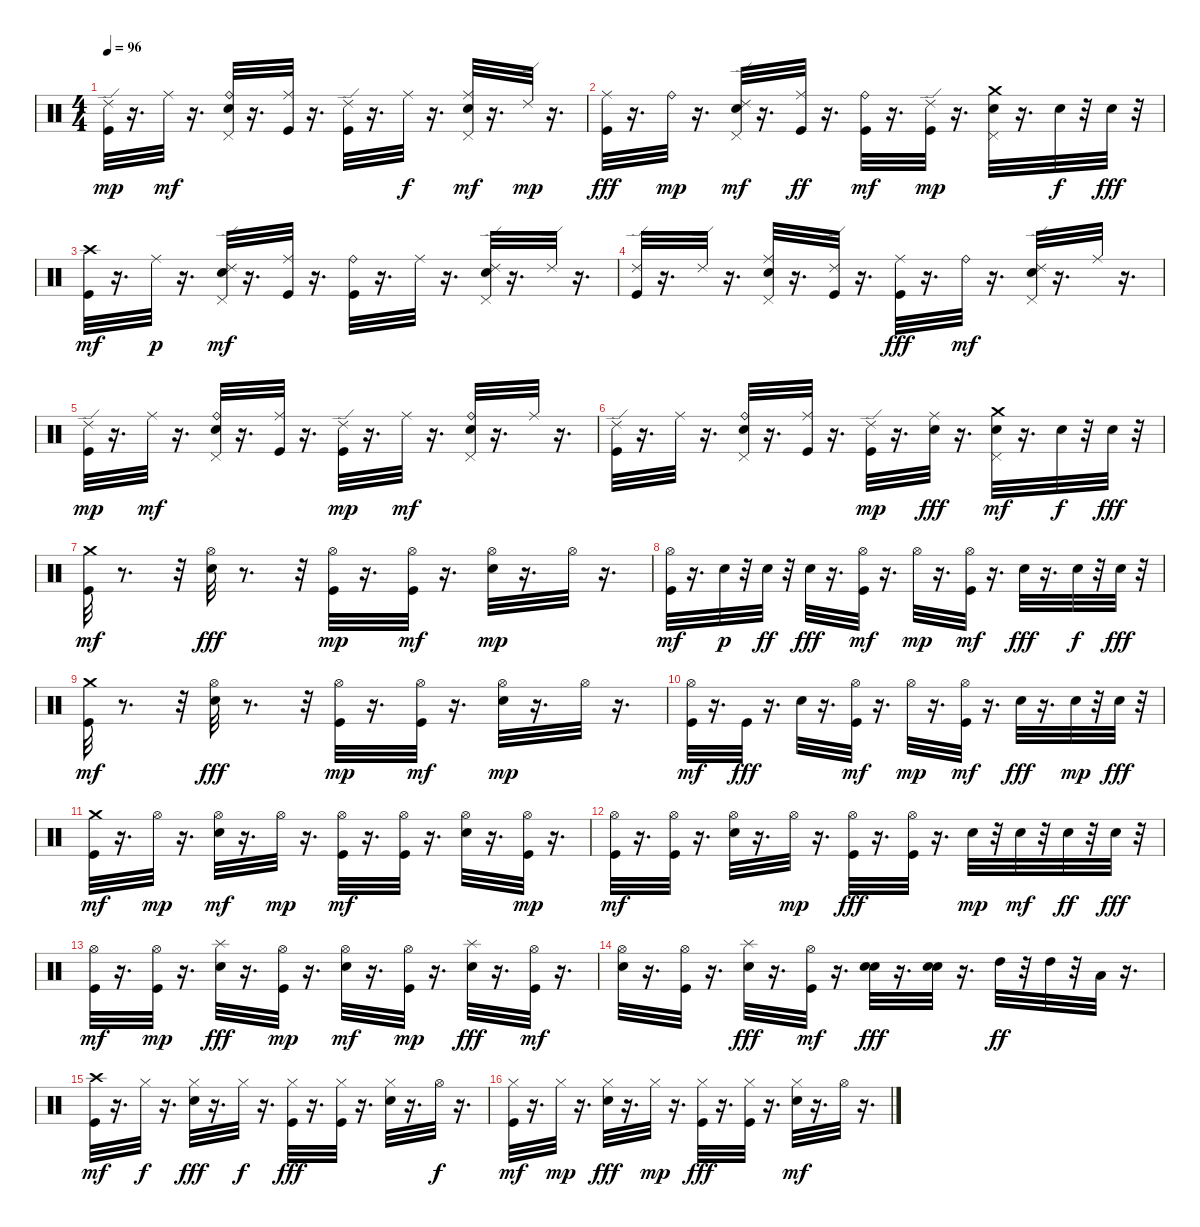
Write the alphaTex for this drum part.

\track "" {instrument percussion}
\staff {score}
\articulation defaults
\ts (4 4)
\tempo 96
\clef neutral
\ks c
("Kick (hit)" "Ride (edge) 2").32{dy mp} r.16{d} "Ride (middle)".32{dy mf} r.16{d} ("Electric Snare (hit)" "Ride (bell)" "Pedal Hi-Hat (hit)").32 r.16{d} ("Kick (hit)" "Ride (middle)").32 r.16{d} ("Kick (hit)" "Ride (edge) 2").32 r.16{d} "Ride (middle)".32{dy f} r.16{d} ("Electric Snare (hit)" "Ride (middle)" "Pedal Hi-Hat (hit)").32{dy mf} r.16{d} "Ride (edge) 2".32{dy mp} r.16{d} |
("Kick (hit)" "Ride (middle)").32{dy fff} r.16{d} "Ride (bell)".32{dy mp} r.16{d} ("Electric Snare (hit)" "Ride (edge) 2" "Pedal Hi-Hat (hit)").32{dy mf} r.16{d} ("Kick (hit)" "Ride (middle)").32{dy ff} r.16{d} ("Kick (hit)" "Ride (bell)").32{dy mf} r.16{d} ("Kick (hit)" "Ride (edge) 2").32{dy mp} r.16{d} ("Electric Snare (hit)" "Crash medium (hit)" "Pedal Hi-Hat (hit)").32 r.16{d} "Electric Snare (hit)".32{dy f} r.32 "Electric Snare (hit)".32{dy fff} r.32 |
("Kick (hit)" "Crash high (hit)").32{dy mf} r.16{d} "Ride (middle)".32{dy p} r.16{d} ("Electric Snare (hit)" "Ride (edge) 2" "Pedal Hi-Hat (hit)").32{dy mf} r.16{d} ("Kick (hit)" "Ride (middle)").32 r.16{d} ("Kick (hit)" "Ride (bell)").32 r.16{d} "Ride (middle)".32 r.16{d} ("Electric Snare (hit)" "Ride (edge) 2" "Pedal Hi-Hat (hit)").32 r.16{d} "Ride (edge) 2".32 r.16{d} |
("Kick (hit)" "Ride (edge) 2").32 r.16{d} "Ride (edge) 2".32 r.16{d} ("Electric Snare (hit)" "Ride (middle)" "Pedal Hi-Hat (hit)").32 r.16{d} ("Kick (hit)" "Ride (edge) 2").32 r.16{d} ("Kick (hit)" "Ride (middle)").32{dy fff} r.16{d} "Ride (bell)".32{dy mf} r.16{d} ("Electric Snare (hit)" "Ride (edge) 2" "Pedal Hi-Hat (hit)").32 r.16{d} "Ride (middle)".32 r.16{d} |
("Kick (hit)" "Ride (edge) 2").32{dy mp} r.16{d} "Ride (middle)".32{dy mf} r.16{d} ("Electric Snare (hit)" "Ride (bell)" "Pedal Hi-Hat (hit)").32 r.16{d} ("Kick (hit)" "Ride (middle)").32 r.16{d} ("Kick (hit)" "Ride (edge) 2").32{dy mp} r.16{d} "Ride (middle)".32{dy mf} r.16{d} ("Electric Snare (hit)" "Ride (bell)" "Pedal Hi-Hat (hit)").32 r.16{d} "Ride (middle)".32 r.16{d} |
("Kick (hit)" "Ride (edge) 2").32 r.16{d} "Ride (middle)".32 r.16{d} ("Electric Snare (hit)" "Ride (bell)" "Pedal Hi-Hat (hit)").32 r.16{d} ("Kick (hit)" "Ride (middle)").32 r.16{d} ("Kick (hit)" "Ride (edge) 2").32{dy mp} r.16{d} ("Electric Snare (hit)" "Ride (middle)").32{dy fff} r.16{d} ("Electric Snare (hit)" "Crash medium (hit)" "Pedal Hi-Hat (hit)").32{dy mf} r.16{d} "Electric Snare (hit)".32{dy f} r.32 "Electric Snare (hit)".32{dy fff} r.32 |
("Kick (hit)" "Crash medium (hit)").32{dy mf} r.8{d} r.32 ("Electric Snare (hit)" "Hi-Hat (open)").32{dy fff} r.8{d} r.32 ("Kick (hit)" "Hi-Hat (open)").32{dy mp} r.16{d} ("Kick (hit)" "Hi-Hat (open)").32{dy mf} r.16{d} ("Electric Snare (hit)" "Hi-Hat (open)").32{dy mp} r.16{d} "Hi-Hat (open)".32 r.16{d} |
("Kick (hit)" "Hi-Hat (open)").32{dy mf} r.16{d} "Electric Snare (hit)".32{dy p} r.32 "Electric Snare (hit)".32{dy ff} r.32 "Electric Snare (hit)".32{dy fff} r.16{d} ("Kick (hit)" "Hi-Hat (open)").32{dy mf} r.16{d} "Hi-Hat (open)".32{dy mp} r.16{d} ("Kick (hit)" "Hi-Hat (open)").32{dy mf} r.16{d} "Electric Snare (hit)".32{dy fff} r.16{d} "Electric Snare (hit)".32{dy f} r.32 "Electric Snare (hit)".32{dy fff} r.32 |
("Kick (hit)" "Crash medium (hit)").32{dy mf} r.8{d} r.32 ("Electric Snare (hit)" "Hi-Hat (open)").32{dy fff} r.8{d} r.32 ("Kick (hit)" "Hi-Hat (open)").32{dy mp} r.16{d} ("Kick (hit)" "Hi-Hat (open)").32{dy mf} r.16{d} ("Electric Snare (hit)" "Hi-Hat (open)").32{dy mp} r.16{d} "Hi-Hat (open)".32 r.16{d} |
("Kick (hit)" "Hi-Hat (open)").32{dy mf} r.16{d} "Kick (hit)".32{dy fff} r.16{d} "Electric Snare (hit)".32 r.16{d} ("Kick (hit)" "Hi-Hat (open)").32{dy mf} r.16{d} "Hi-Hat (open)".32{dy mp} r.16{d} ("Kick (hit)" "Hi-Hat (open)").32{dy mf} r.16{d} "Electric Snare (hit)".32{dy fff} r.16{d} "Electric Snare (hit)".32{dy mp} r.32 "Electric Snare (hit)".32{dy fff} r.32 |
("Kick (hit)" "Crash medium (hit)").32{dy mf} r.16{d} "Hi-Hat (open)".32{dy mp} r.16{d} ("Electric Snare (hit)" "Hi-Hat (open)").32{dy mf} r.16{d} "Hi-Hat (open)".32{dy mp} r.16{d} ("Kick (hit)" "Hi-Hat (open)").32{dy mf} r.16{d} ("Kick (hit)" "Hi-Hat (open)").32 r.16{d} ("Electric Snare (hit)" "Hi-Hat (open)").32 r.16{d} ("Kick (hit)" "Hi-Hat (open)").32{dy mp} r.16{d} |
("Kick (hit)" "Hi-Hat (open)").32{dy mf} r.16{d} ("Kick (hit)" "Hi-Hat (open)").32 r.16{d} ("Electric Snare (hit)" "Hi-Hat (open)").32 r.16{d} "Hi-Hat (open)".32{dy mp} r.16{d} ("Kick (hit)" "Hi-Hat (open)").32{dy fff} r.16{d} ("Kick (hit)" "Hi-Hat (open)").32 r.16{d} "Electric Snare (hit)".32{dy mp} r.32 "Electric Snare (hit)".32{dy mf} r.32 "Electric Snare (hit)".32{dy ff} r.32 "Electric Snare (hit)".32{dy fff} r.32 |
("Kick (hit)" "Hi-Hat (open)").32{dy mf} r.16{d} ("Kick (hit)" "Hi-Hat (open)").32{dy mp} r.16{d} ("Electric Snare (hit)" "Splash (hit)").32{dy fff} r.16{d} ("Kick (hit)" "Hi-Hat (open)").32{dy mp} r.16{d} ("Electric Snare (hit)" "Hi-Hat (open)").32{dy mf} r.16{d} ("Kick (hit)" "Hi-Hat (open)").32{dy mp} r.16{d} ("Electric Snare (hit)" "Splash (hit)").32{dy fff} r.16{d} ("Kick (hit)" "Hi-Hat (open)").32{dy mf} r.16{d} |
("Electric Snare (hit)" "Hi-Hat (open)").32 r.16{d} ("Kick (hit)" "Hi-Hat (open)").32 r.16{d} ("Electric Snare (hit)" "Splash (hit)").32{dy fff} r.16{d} ("Kick (hit)" "Hi-Hat (open)").32{dy mf} r.16{d} ("Snare (hit) 2" "Electric Snare (hit)").32{dy fff} r.16{d} ("Snare (hit) 2" "Electric Snare (hit)").32 r.16{d} "High Tom (hit)".32{dy ff} r.32 "High Tom (hit)".32 r.32 "Low Tom (hit)".32 r.16{d} |
("Kick (hit)" "Crash high (hit)").32{dy mf} r.16{d} "Hi-Hat (closed)".32{dy f} r.16{d} ("Electric Snare (hit)" "Hi-Hat (closed)").32{dy fff} r.16{d} "Hi-Hat (closed)".32{dy f} r.16{d} ("Kick (hit)" "Hi-Hat (closed)").32{dy fff} r.16{d} ("Kick (hit)" "Hi-Hat (closed)").32 r.16{d} ("Electric Snare (hit)" "Hi-Hat (closed)").32 r.16{d} "Hi-Hat (open)".32{dy f} r.16{d} |
("Kick (hit)" "Hi-Hat (closed)").32{dy mf} r.16{d} "Hi-Hat (closed)".32{dy mp} r.16{d} ("Electric Snare (hit)" "Hi-Hat (closed)").32{dy fff} r.16{d} "Hi-Hat (closed)".32{dy mp} r.16{d} ("Kick (hit)" "Hi-Hat (closed)").32{dy fff} r.16{d} ("Kick (hit)" "Hi-Hat (closed)").32 r.16{d} ("Electric Snare (hit)" "Hi-Hat (closed)").32{dy mf} r.16{d} "Hi-Hat (open)".32 r.16{d}
